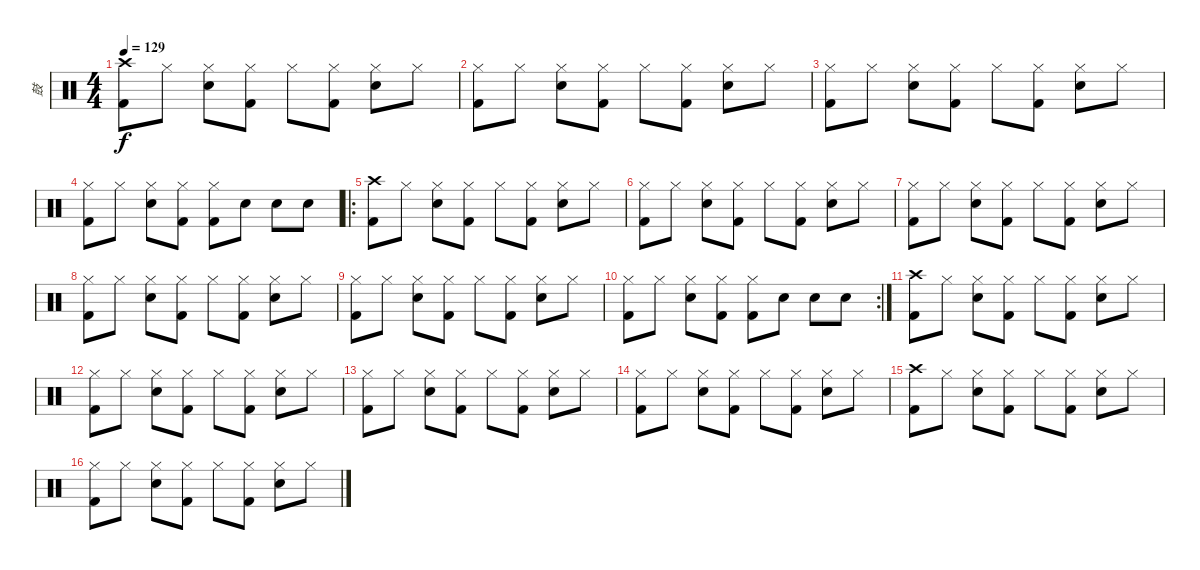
\track ("鼓" "鼓") {instrument percussion}
\staff {score}
\articulation defaults
\ts (4 4)
\tempo 129
\clef neutral
\ks c
("Crash high (hit)" "Kick (hit) 2").8{dy f} "Hi-Hat (closed)".8 ("Hi-Hat (closed)" "Snare (hit) 2").8 ("Hi-Hat (closed)" "Kick (hit) 2").8 "Hi-Hat (closed)".8 ("Hi-Hat (closed)" "Kick (hit) 2").8 ("Hi-Hat (closed)" "Snare (hit) 2").8 "Hi-Hat (closed)".8 |
("Hi-Hat (closed)" "Kick (hit) 2").8 "Hi-Hat (closed)".8 ("Hi-Hat (closed)" "Snare (hit) 2").8 ("Hi-Hat (closed)" "Kick (hit) 2").8 "Hi-Hat (closed)".8 ("Hi-Hat (closed)" "Kick (hit) 2").8 ("Hi-Hat (closed)" "Snare (hit) 2").8 "Hi-Hat (closed)".8 |
("Hi-Hat (closed)" "Kick (hit) 2").8 "Hi-Hat (closed)".8 ("Hi-Hat (closed)" "Snare (hit) 2").8 ("Hi-Hat (closed)" "Kick (hit) 2").8 "Hi-Hat (closed)".8 ("Hi-Hat (closed)" "Kick (hit) 2").8 ("Hi-Hat (closed)" "Snare (hit) 2").8 "Hi-Hat (closed)".8 |
("Hi-Hat (closed)" "Kick (hit) 2").8 "Hi-Hat (closed)".8 ("Hi-Hat (closed)" "Snare (hit) 2").8 ("Hi-Hat (closed)" "Kick (hit) 2").8 ("Hi-Hat (closed)" "Kick (hit) 2").8 "Snare (hit) 2".8 "Snare (hit) 2".8 "Snare (hit) 2".8 |
\ro
("Crash high (hit)" "Kick (hit) 2").8 "Hi-Hat (closed)".8 ("Hi-Hat (closed)" "Snare (hit) 2").8 ("Hi-Hat (closed)" "Kick (hit) 2").8 "Hi-Hat (closed)".8 ("Hi-Hat (closed)" "Kick (hit) 2").8 ("Hi-Hat (closed)" "Snare (hit) 2").8 "Hi-Hat (closed)".8 |
("Hi-Hat (closed)" "Kick (hit) 2").8 "Hi-Hat (closed)".8 ("Hi-Hat (closed)" "Snare (hit) 2").8 ("Hi-Hat (closed)" "Kick (hit) 2").8 "Hi-Hat (closed)".8 ("Hi-Hat (closed)" "Kick (hit) 2").8 ("Hi-Hat (closed)" "Snare (hit) 2").8 "Hi-Hat (closed)".8 |
("Hi-Hat (closed)" "Kick (hit) 2").8 "Hi-Hat (closed)".8 ("Hi-Hat (closed)" "Snare (hit) 2").8 ("Hi-Hat (closed)" "Kick (hit) 2").8 "Hi-Hat (closed)".8 ("Hi-Hat (closed)" "Kick (hit) 2").8 ("Hi-Hat (closed)" "Snare (hit) 2").8 "Hi-Hat (closed)".8 |
("Hi-Hat (closed)" "Kick (hit) 2").8 "Hi-Hat (closed)".8 ("Hi-Hat (closed)" "Snare (hit) 2").8 ("Hi-Hat (closed)" "Kick (hit) 2").8 "Hi-Hat (closed)".8 ("Hi-Hat (closed)" "Kick (hit) 2").8 ("Hi-Hat (closed)" "Snare (hit) 2").8 "Hi-Hat (closed)".8 |
("Hi-Hat (closed)" "Kick (hit) 2").8 "Hi-Hat (closed)".8 ("Hi-Hat (closed)" "Snare (hit) 2").8 ("Hi-Hat (closed)" "Kick (hit) 2").8 "Hi-Hat (closed)".8 ("Hi-Hat (closed)" "Kick (hit) 2").8 ("Hi-Hat (closed)" "Snare (hit) 2").8 "Hi-Hat (closed)".8 |
\rc 2
("Hi-Hat (closed)" "Kick (hit) 2").8 "Hi-Hat (closed)".8 ("Hi-Hat (closed)" "Snare (hit) 2").8 ("Hi-Hat (closed)" "Kick (hit) 2").8 ("Hi-Hat (closed)" "Kick (hit) 2").8 "Snare (hit) 2".8 "Snare (hit) 2".8 "Snare (hit) 2".8 |
("Crash high (hit)" "Kick (hit) 2").8 "Hi-Hat (closed)".8 ("Hi-Hat (closed)" "Snare (hit) 2").8 ("Hi-Hat (closed)" "Kick (hit) 2").8 "Hi-Hat (closed)".8 ("Hi-Hat (closed)" "Kick (hit) 2").8 ("Hi-Hat (closed)" "Snare (hit) 2").8 "Hi-Hat (closed)".8 |
("Hi-Hat (closed)" "Kick (hit) 2").8 "Hi-Hat (closed)".8 ("Hi-Hat (closed)" "Snare (hit) 2").8 ("Hi-Hat (closed)" "Kick (hit) 2").8 "Hi-Hat (closed)".8 ("Hi-Hat (closed)" "Kick (hit) 2").8 ("Hi-Hat (closed)" "Snare (hit) 2").8 "Hi-Hat (closed)".8 |
("Hi-Hat (closed)" "Kick (hit) 2").8 "Hi-Hat (closed)".8 ("Hi-Hat (closed)" "Snare (hit) 2").8 ("Hi-Hat (closed)" "Kick (hit) 2").8 "Hi-Hat (closed)".8 ("Hi-Hat (closed)" "Kick (hit) 2").8 ("Hi-Hat (closed)" "Snare (hit) 2").8 "Hi-Hat (closed)".8 |
("Hi-Hat (closed)" "Kick (hit) 2").8 "Hi-Hat (closed)".8 ("Hi-Hat (closed)" "Snare (hit) 2").8 ("Hi-Hat (closed)" "Kick (hit) 2").8 "Hi-Hat (closed)".8 ("Hi-Hat (closed)" "Kick (hit) 2").8 ("Hi-Hat (closed)" "Snare (hit) 2").8 "Hi-Hat (closed)".8 |
("Crash high (hit)" "Kick (hit) 2").8 "Hi-Hat (closed)".8 ("Hi-Hat (closed)" "Snare (hit) 2").8 ("Hi-Hat (closed)" "Kick (hit) 2").8 "Hi-Hat (closed)".8 ("Hi-Hat (closed)" "Kick (hit) 2").8 ("Hi-Hat (closed)" "Snare (hit) 2").8 "Hi-Hat (closed)".8 |
("Hi-Hat (closed)" "Kick (hit) 2").8 "Hi-Hat (closed)".8 ("Hi-Hat (closed)" "Snare (hit) 2").8 ("Hi-Hat (closed)" "Kick (hit) 2").8 "Hi-Hat (closed)".8 ("Hi-Hat (closed)" "Kick (hit) 2").8 ("Hi-Hat (closed)" "Snare (hit) 2").8 "Hi-Hat (closed)".8
